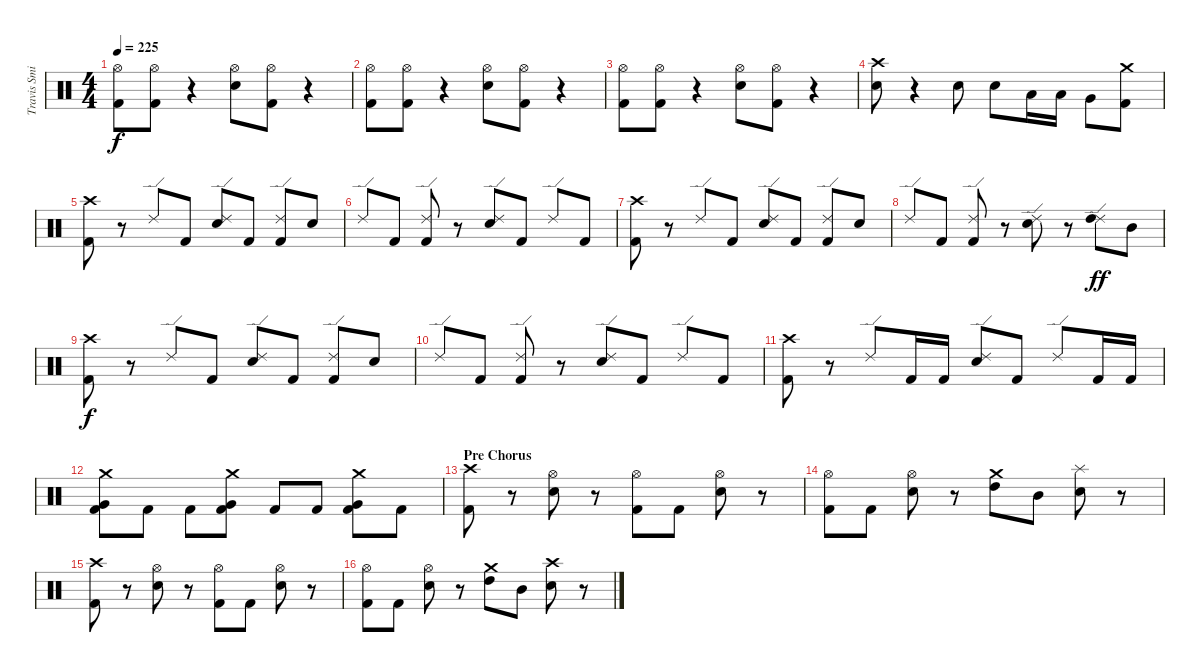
\track ("Travis Smith" "Travis Smi") {instrument percussion}
\staff {score}
\articulation defaults
\ts (4 4)
\tempo 225
\clef neutral
\ks c
("Hi-Hat (open)" "Kick (hit) 2").8{dy f} ("Hi-Hat (open)" "Kick (hit) 2").8 r.4 ("Hi-Hat (open)" "Electric Snare (hit)").8 ("Hi-Hat (open)" "Kick (hit) 2").8 r.4 |
("Hi-Hat (open)" "Kick (hit) 2").8 ("Hi-Hat (open)" "Kick (hit) 2").8 r.4 ("Hi-Hat (open)" "Electric Snare (hit)").8 ("Hi-Hat (open)" "Kick (hit) 2").8 r.4 |
("Hi-Hat (open)" "Kick (hit) 2").8 ("Hi-Hat (open)" "Kick (hit) 2").8 r.4 ("Hi-Hat (open)" "Electric Snare (hit)").8 ("Hi-Hat (open)" "Kick (hit) 2").8 r.4 |
("Crash high (hit)" "Electric Snare (hit)").8 r.4 "Electric Snare (hit)".8 "Electric Snare (hit)".8 "Low Tom (hit)".16 "Low Tom (hit)".16 "Very Low Tom (hit)".8 ("Crash medium (hit)" "Kick (hit) 2").8 |
("Crash high (hit)" "Kick (hit) 2").8 r.8 "Ride (edge) 2".8 "Kick (hit) 2".8 ("Ride (edge) 2" "Electric Snare (hit)").8 "Kick (hit) 2".8 ("Ride (edge) 2" "Kick (hit) 2").8 "Electric Snare (hit)".8 |
"Ride (edge) 2".8 "Kick (hit) 2".8 ("Ride (edge) 2" "Kick (hit) 2").8 r.8 ("Ride (edge) 2" "Electric Snare (hit)").8 "Kick (hit) 2".8 "Ride (edge) 2".8 "Kick (hit) 2".8 |
("Crash high (hit)" "Kick (hit) 2").8 r.8 "Ride (edge) 2".8 "Kick (hit) 2".8 ("Ride (edge) 2" "Electric Snare (hit)").8 "Kick (hit) 2".8 ("Ride (edge) 2" "Kick (hit) 2").8 "Electric Snare (hit)".8 |
"Ride (edge) 2".8 "Kick (hit) 2".8 ("Ride (edge) 2" "Kick (hit) 2").8 r.8 ("Ride (edge) 2" "Electric Snare (hit)").8 r.8 ("Ride (edge) 2" "High Tom (hit)").8{dy ff} "Mid Tom (hit)".8 |
("Crash high (hit)" "Kick (hit) 2").8{dy f} r.8 "Ride (edge) 2".8 "Kick (hit) 2".8 ("Ride (edge) 2" "Electric Snare (hit)").8 "Kick (hit) 2".8 ("Ride (edge) 2" "Kick (hit) 2").8 "Electric Snare (hit)".8 |
"Ride (edge) 2".8 "Kick (hit) 2".8 ("Ride (edge) 2" "Kick (hit) 2").8 r.8 ("Ride (edge) 2" "Electric Snare (hit)").8 "Kick (hit) 2".8 "Ride (edge) 2".8 "Kick (hit) 2".8 |
("Crash high (hit)" "Kick (hit) 2").8 r.8 "Ride (edge) 2".8 "Kick (hit) 2".16 "Kick (hit) 2".16 ("Ride (edge) 2" "Electric Snare (hit)").8 "Kick (hit) 2".8 "Ride (edge) 2".8 "Kick (hit) 2".16 "Kick (hit) 2".16 |
("Crash medium (hit)" "Very Low Tom (hit)" "Kick (hit) 2").8 "Kick (hit) 2".8 "Kick (hit) 2".8 ("Crash medium (hit)" "Very Low Tom (hit)" "Kick (hit) 2").8 "Kick (hit) 2".8 "Kick (hit) 2".8 ("Crash medium (hit)" "Very Low Tom (hit)" "Kick (hit) 2").8 "Kick (hit) 2".8 |
\section ("" "Pre Chorus")
("Crash high (hit)" "Kick (hit) 2").8 r.8 ("Hi-Hat (open)" "Electric Snare (hit)").8 r.8 ("Hi-Hat (open)" "Kick (hit) 2").8 "Kick (hit) 2".8 ("Hi-Hat (open)" "Electric Snare (hit)").8 r.8 |
("Hi-Hat (open)" "Kick (hit) 2").8 "Kick (hit) 2".8 ("Hi-Hat (open)" "Electric Snare (hit)").8 r.8 ("Crash medium (hit)" "High Tom (hit)").8 "Mid Tom (hit)".8 ("Splash (hit)" "Electric Snare (hit)").8 r.8 |
("Crash high (hit)" "Kick (hit) 2").8 r.8 ("Hi-Hat (open)" "Electric Snare (hit)").8 r.8 ("Hi-Hat (open)" "Kick (hit) 2").8 "Kick (hit) 2".8 ("Hi-Hat (open)" "Electric Snare (hit)").8 r.8 |
("Hi-Hat (open)" "Kick (hit) 2").8 "Kick (hit) 2".8 ("Hi-Hat (open)" "Electric Snare (hit)").8 r.8 ("Crash medium (hit)" "High Tom (hit)").8 "Mid Tom (hit)".8 ("Crash high (hit)" "Electric Snare (hit)").8 r.8
